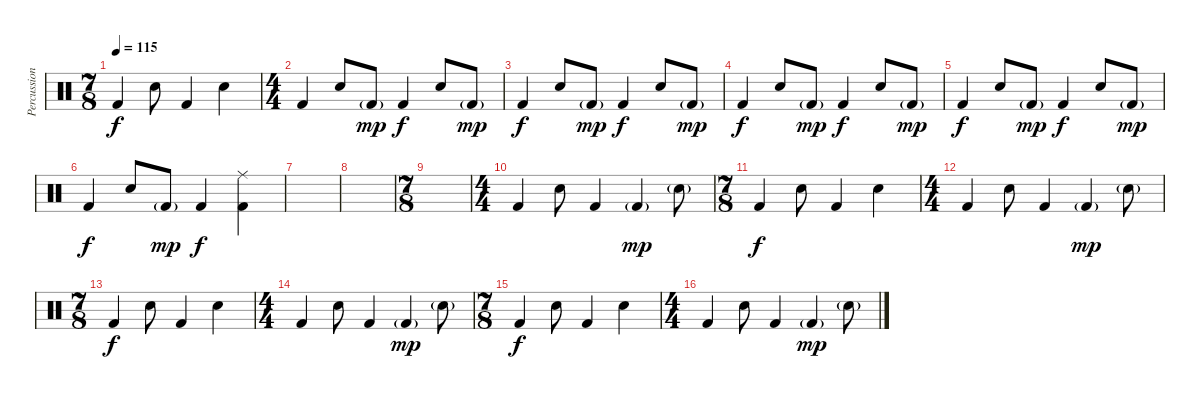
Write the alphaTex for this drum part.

\track ("Percussion" "Percussion") {instrument percussion}
\staff {score}
\articulation defaults
\ts (7 8)
\tempo 115
\clef neutral
\ks c "Kick (hit) 2".4{dy f} "Snare (hit) 2".8 "Kick (hit) 2".4 "Snare (hit) 2".4
|
\ts (4 4)
"Kick (hit) 2".4 "Snare (hit) 2".8 "Kick (hit) 2"{g}.8{dy mp} "Kick (hit) 2".4{dy f} "Snare (hit) 2".8 "Kick (hit) 2"{g}.8{dy mp} |
"Kick (hit) 2".4{dy f} "Snare (hit) 2".8 "Kick (hit) 2"{g}.8{dy mp} "Kick (hit) 2".4{dy f} "Snare (hit) 2".8 "Kick (hit) 2"{g}.8{dy mp} |
"Kick (hit) 2".4{dy f} "Snare (hit) 2".8 "Kick (hit) 2"{g}.8{dy mp} "Kick (hit) 2".4{dy f} "Snare (hit) 2".8 "Kick (hit) 2"{g}.8{dy mp} |
"Kick (hit) 2".4{dy f} "Snare (hit) 2".8 "Kick (hit) 2"{g}.8{dy mp} "Kick (hit) 2".4{dy f} "Snare (hit) 2".8 "Kick (hit) 2"{g}.8{dy mp} |
"Kick (hit) 2".4{dy f} "Snare (hit) 2".8 "Kick (hit) 2"{g}.8{dy mp} "Kick (hit) 2".4{dy f} ("Ride (middle)" "Kick (hit) 2").4 |
|
|
\ts (7 8)
|
\ts (4 4)
"Kick (hit) 2".4 "Snare (hit) 2".8 "Kick (hit) 2".4 "Kick (hit) 2"{g}.4{dy mp} "Snare (hit) 2"{g}.8 |
\ts (7 8)
"Kick (hit) 2".4{dy f} "Snare (hit) 2".8 "Kick (hit) 2".4 "Snare (hit) 2".4 |
\ts (4 4)
"Kick (hit) 2".4 "Snare (hit) 2".8 "Kick (hit) 2".4 "Kick (hit) 2"{g}.4{dy mp} "Snare (hit) 2"{g}.8 |
\ts (7 8)
"Kick (hit) 2".4{dy f} "Snare (hit) 2".8 "Kick (hit) 2".4 "Snare (hit) 2".4 |
\ts (4 4)
"Kick (hit) 2".4 "Snare (hit) 2".8 "Kick (hit) 2".4 "Kick (hit) 2"{g}.4{dy mp} "Snare (hit) 2"{g}.8 |
\ts (7 8)
"Kick (hit) 2".4{dy f} "Snare (hit) 2".8 "Kick (hit) 2".4 "Snare (hit) 2".4 |
\ts (4 4)
"Kick (hit) 2".4 "Snare (hit) 2".8 "Kick (hit) 2".4 "Kick (hit) 2"{g}.4{dy mp} "Snare (hit) 2"{g}.8
